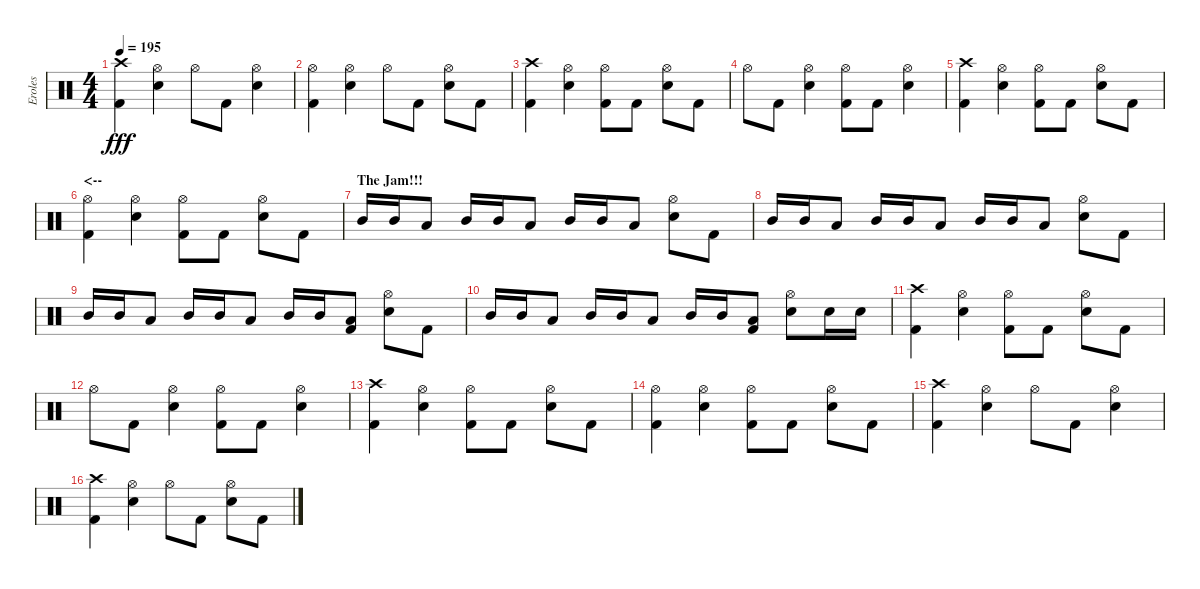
\track ("Eroles" "Eroles") {instrument percussion}
\staff {score}
\articulation defaults
\ts (4 4)
\tempo 195
\clef neutral
\ks c
("Crash high (hit)" "Kick (hit) 2").4{dy fff} ("Hi-Hat (open)" "Snare (hit) 2").4 "Hi-Hat (open)".8 "Kick (hit) 2".8 ("Hi-Hat (open)" "Snare (hit) 2").4 |
("Hi-Hat (open)" "Kick (hit) 2").4 ("Hi-Hat (open)" "Snare (hit) 2").4 "Hi-Hat (open)".8 "Kick (hit) 2".8 ("Hi-Hat (open)" "Snare (hit) 2").8 "Kick (hit) 2".8 |
("Crash high (hit)" "Kick (hit) 2").4 ("Hi-Hat (open)" "Snare (hit) 2").4 ("Hi-Hat (open)" "Kick (hit) 2").8 "Kick (hit) 2".8 ("Hi-Hat (open)" "Snare (hit) 2").8 "Kick (hit) 2".8 |
"Hi-Hat (open)".8 "Kick (hit) 2".8 ("Hi-Hat (open)" "Snare (hit) 2").4 ("Hi-Hat (open)" "Kick (hit) 2").8 "Kick (hit) 2".8 ("Hi-Hat (open)" "Snare (hit) 2").4 |
("Crash high (hit)" "Kick (hit) 2").4 ("Hi-Hat (open)" "Snare (hit) 2").4 ("Hi-Hat (open)" "Kick (hit) 2").8 "Kick (hit) 2".8 ("Hi-Hat (open)" "Snare (hit) 2").8 "Kick (hit) 2".8 |
\section ("" "<--")
("Hi-Hat (open)" "Kick (hit) 2").4 ("Hi-Hat (open)" "Snare (hit) 2").4 ("Hi-Hat (open)" "Kick (hit) 2").8 "Kick (hit) 2".8 ("Hi-Hat (open)" "Snare (hit) 2").8 "Kick (hit) 2".8 |
\section ("" "The Jam!!!")
"Mid Tom (hit)".16 "Mid Tom (hit)".16 "Low Tom (hit)".8 "Mid Tom (hit)".16 "Mid Tom (hit)".16 "Low Tom (hit)".8 "Mid Tom (hit)".16 "Mid Tom (hit)".16 "Low Tom (hit)".8 ("Hi-Hat (open)" "Snare (hit) 2").8 "Kick (hit) 2".8 |
"Mid Tom (hit)".16 "Mid Tom (hit)".16 "Low Tom (hit)".8 "Mid Tom (hit)".16 "Mid Tom (hit)".16 "Low Tom (hit)".8 "Mid Tom (hit)".16 "Mid Tom (hit)".16 "Low Tom (hit)".8 ("Hi-Hat (open)" "Snare (hit) 2").8 "Kick (hit) 2".8 |
"Mid Tom (hit)".16 "Mid Tom (hit)".16 "Low Tom (hit)".8 "Mid Tom (hit)".16 "Mid Tom (hit)".16 "Low Tom (hit)".8 "Mid Tom (hit)".16 "Mid Tom (hit)".16 ("Low Tom (hit)" "Kick (hit) 2").8 ("Hi-Hat (open)" "Snare (hit) 2").8 "Kick (hit) 2".8 |
"Mid Tom (hit)".16 "Mid Tom (hit)".16 "Low Tom (hit)".8 "Mid Tom (hit)".16 "Mid Tom (hit)".16 "Low Tom (hit)".8 "Mid Tom (hit)".16 "Mid Tom (hit)".16 ("Low Tom (hit)" "Kick (hit) 2").8 ("Hi-Hat (open)" "Snare (hit) 2").8 "Snare (hit) 2".16 "Snare (hit) 2".16 |
("Crash high (hit)" "Kick (hit) 2").4 ("Hi-Hat (open)" "Snare (hit) 2").4 ("Hi-Hat (open)" "Kick (hit) 2").8 "Kick (hit) 2".8 ("Hi-Hat (open)" "Snare (hit) 2").8 "Kick (hit) 2".8 |
"Hi-Hat (open)".8 "Kick (hit) 2".8 ("Hi-Hat (open)" "Snare (hit) 2").4 ("Hi-Hat (open)" "Kick (hit) 2").8 "Kick (hit) 2".8 ("Hi-Hat (open)" "Snare (hit) 2").4 |
("Crash high (hit)" "Kick (hit) 2").4 ("Hi-Hat (open)" "Snare (hit) 2").4 ("Hi-Hat (open)" "Kick (hit) 2").8 "Kick (hit) 2".8 ("Hi-Hat (open)" "Snare (hit) 2").8 "Kick (hit) 2".8 |
("Hi-Hat (open)" "Kick (hit) 2").4 ("Hi-Hat (open)" "Snare (hit) 2").4 ("Hi-Hat (open)" "Kick (hit) 2").8 "Kick (hit) 2".8 ("Hi-Hat (open)" "Snare (hit) 2").8 "Kick (hit) 2".8 |
("Crash high (hit)" "Kick (hit) 2").4 ("Hi-Hat (open)" "Snare (hit) 2").4 "Hi-Hat (open)".8 "Kick (hit) 2".8 ("Hi-Hat (open)" "Snare (hit) 2").4 |
("Crash high (hit)" "Kick (hit) 2").4 ("Hi-Hat (open)" "Snare (hit) 2").4 "Hi-Hat (open)".8 "Kick (hit) 2".8 ("Hi-Hat (open)" "Snare (hit) 2").8 "Kick (hit) 2".8
